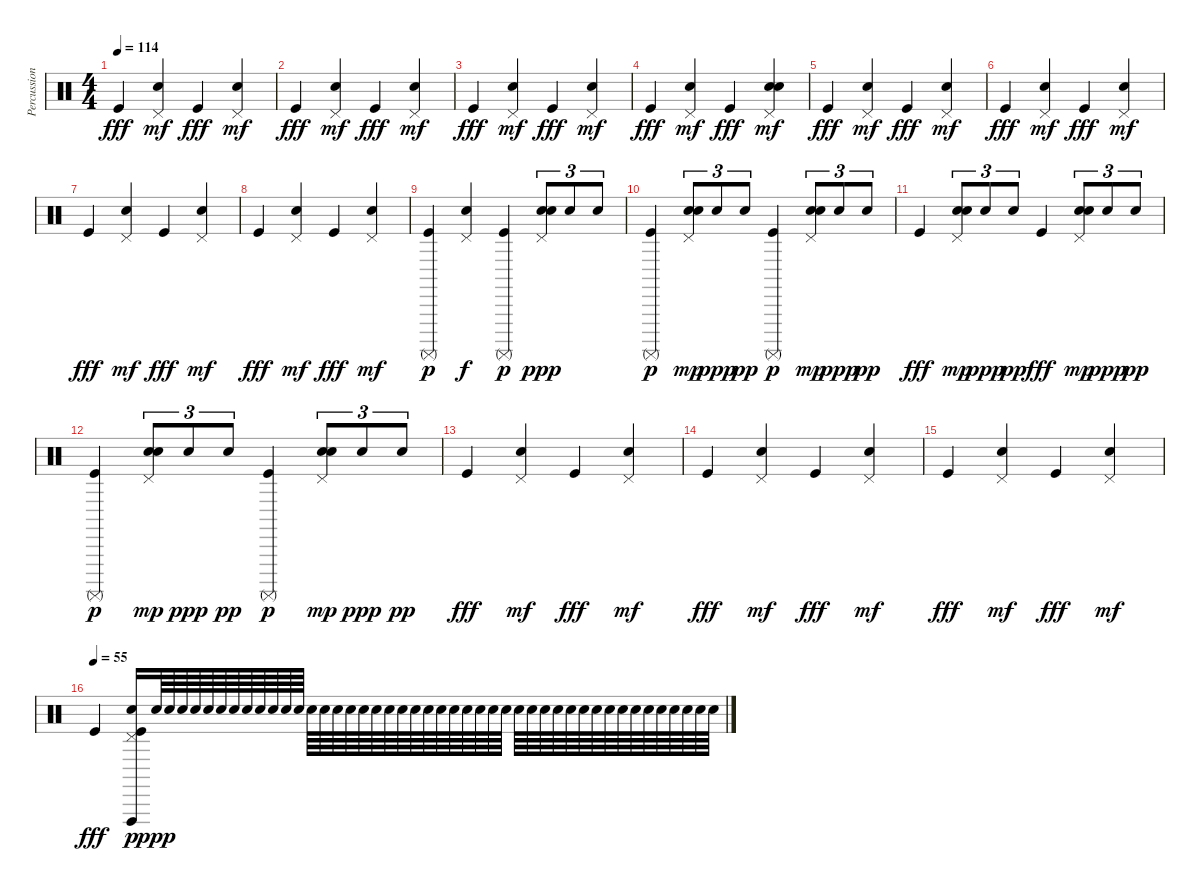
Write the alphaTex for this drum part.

\track ("Percussion" "Percussion") {instrument percussion}
\staff {score}
\articulation defaults
\ts (4 4)
\tempo 114
\clef neutral
\ks c "Kick (hit)".4{dy fff}
("Pedal Hi-Hat (hit)" "Electric Snare (hit)").4{dy mf} "Kick (hit)".4{dy fff} ("Pedal Hi-Hat (hit)" "Electric Snare (hit)").4{dy mf} |
"Kick (hit)".4{dy fff} ("Pedal Hi-Hat (hit)" "Electric Snare (hit)").4{dy mf} "Kick (hit)".4{dy fff} ("Pedal Hi-Hat (hit)" "Electric Snare (hit)").4{dy mf} |
"Kick (hit)".4{dy fff} ("Pedal Hi-Hat (hit)" "Electric Snare (hit)").4{dy mf} "Kick (hit)".4{dy fff} ("Pedal Hi-Hat (hit)" "Electric Snare (hit)").4{dy mf} |
"Kick (hit)".4{dy fff} ("Pedal Hi-Hat (hit)" "Electric Snare (hit)").4{dy mf} "Kick (hit)".4{dy fff} ("Pedal Hi-Hat (hit)" "Electric Snare (hit)" "Snare (hit)").4{dy mf} |
"Kick (hit)".4{dy fff} ("Pedal Hi-Hat (hit)" "Electric Snare (hit)").4{dy mf} "Kick (hit)".4{dy fff} ("Pedal Hi-Hat (hit)" "Electric Snare (hit)").4{dy mf} |
"Kick (hit)".4{dy fff} ("Pedal Hi-Hat (hit)" "Electric Snare (hit)").4{dy mf} "Kick (hit)".4{dy fff} ("Pedal Hi-Hat (hit)" "Electric Snare (hit)").4{dy mf} |
"Kick (hit)".4{dy fff} ("Pedal Hi-Hat (hit)" "Electric Snare (hit)").4{dy mf} "Kick (hit)".4{dy fff} ("Pedal Hi-Hat (hit)" "Electric Snare (hit)").4{dy mf} |
"Kick (hit)".4{dy fff} ("Pedal Hi-Hat (hit)" "Electric Snare (hit)").4{dy mf} "Kick (hit)".4{dy fff} ("Pedal Hi-Hat (hit)" "Electric Snare (hit)").4{dy mf} |
("Kick (hit)" "Surdo (mute)").4{dy p} ("Pedal Hi-Hat (hit)" "Electric Snare (hit)").4{dy f} ("Kick (hit)" "Surdo (mute)").4{dy p} ("Pedal Hi-Hat (hit)" "Snare (hit) 2" "Electric Snare (hit)").8{tu (3 2) dy ppp} "Snare (hit) 2".8{tu (3 2)} "Snare (hit) 2".8{tu (3 2)} |
("Kick (hit)" "Surdo (mute)").4{dy p} ("Pedal Hi-Hat (hit)" "Snare (hit) 2" "Electric Snare (hit)").8{tu (3 2) dy mp} "Snare (hit) 2".8{tu (3 2) dy ppp} "Snare (hit) 2".8{tu (3 2) dy pp} ("Kick (hit)" "Surdo (mute)").4{dy p} ("Pedal Hi-Hat (hit)" "Snare (hit) 2" "Electric Snare (hit)").8{tu (3 2) dy mp} "Snare (hit) 2".8{tu (3 2) dy ppp} "Snare (hit) 2".8{tu (3 2) dy pp} |
"Kick (hit)".4{dy fff} ("Pedal Hi-Hat (hit)" "Snare (hit) 2" "Electric Snare (hit)").8{tu (3 2) dy mp} "Snare (hit) 2".8{tu (3 2) dy ppp} "Snare (hit) 2".8{tu (3 2) dy pp} "Kick (hit)".4{dy fff} ("Pedal Hi-Hat (hit)" "Snare (hit) 2" "Electric Snare (hit)").8{tu (3 2) dy mp} "Snare (hit) 2".8{tu (3 2) dy ppp} "Snare (hit) 2".8{tu (3 2) dy pp} |
("Kick (hit)" "Surdo (mute)").4{dy p} ("Pedal Hi-Hat (hit)" "Snare (hit) 2" "Electric Snare (hit)").8{tu (3 2) dy mp} "Snare (hit) 2".8{tu (3 2) dy ppp} "Snare (hit) 2".8{tu (3 2) dy pp} ("Kick (hit)" "Surdo (mute)").4{dy p} ("Pedal Hi-Hat (hit)" "Snare (hit) 2" "Electric Snare (hit)").8{tu (3 2) dy mp} "Snare (hit) 2".8{tu (3 2) dy ppp} "Snare (hit) 2".8{tu (3 2) dy pp} |
"Kick (hit)".4{dy fff} ("Pedal Hi-Hat (hit)" "Electric Snare (hit)").4{dy mf} "Kick (hit)".4{dy fff} ("Pedal Hi-Hat (hit)" "Electric Snare (hit)").4{dy mf} |
"Kick (hit)".4{dy fff} ("Pedal Hi-Hat (hit)" "Electric Snare (hit)").4{dy mf} "Kick (hit)".4{dy fff} ("Pedal Hi-Hat (hit)" "Electric Snare (hit)").4{dy mf} |
"Kick (hit)".4{dy fff} ("Pedal Hi-Hat (hit)" "Electric Snare (hit)").4{dy mf} "Kick (hit)".4{dy fff} ("Pedal Hi-Hat (hit)" "Electric Snare (hit)").4{dy mf} |
\tempo (55)
"Kick (hit)".4{dy fff} ("Vibraslap (hit)" "Pedal Hi-Hat (hit)" "Snare (hit) 2" "Kick (hit)").16{dy p} "Snare (hit) 2".64{dy ppp} "Snare (hit) 2".64 "Snare (hit) 2".64 "Snare (hit) 2".64 "Snare (hit) 2".64 "Snare (hit) 2".64 "Snare (hit) 2".64 "Snare (hit) 2".64 "Snare (hit) 2".64 "Snare (hit) 2".64 "Snare (hit) 2".64 "Snare (hit) 2".64 "Snare (hit) 2".64 "Snare (hit) 2".64 "Snare (hit) 2".64 "Snare (hit) 2".64 "Snare (hit) 2".64 "Snare (hit) 2".64 "Snare (hit) 2".64 "Snare (hit) 2".64 "Snare (hit) 2".64 "Snare (hit) 2".64 "Snare (hit) 2".64 "Snare (hit) 2".64 "Snare (hit) 2".64 "Snare (hit) 2".64 "Snare (hit) 2".64 "Snare (hit) 2".64 "Snare (hit) 2".64 "Snare (hit) 2".64 "Snare (hit) 2".64 "Snare (hit) 2".64 "Snare (hit) 2".64 "Snare (hit) 2".64 "Snare (hit) 2".64 "Snare (hit) 2".64 "Snare (hit) 2".64 "Snare (hit) 2".64 "Snare (hit) 2".64 "Snare (hit) 2".64 "Snare (hit) 2".64 "Snare (hit) 2".64 "Snare (hit) 2".64 "Snare (hit) 2".64
